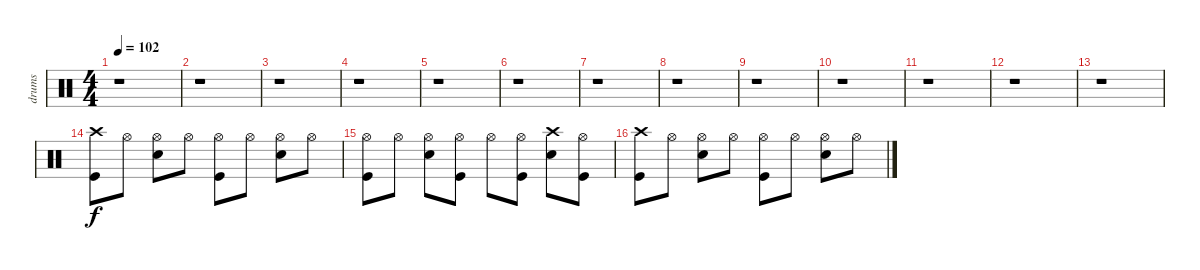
\track ("drums" "drums") {instrument percussion}
\staff {score}
\articulation defaults
\ts (4 4)
\tempo 102
\clef neutral
\ks c
r.1{dy f} |
r.1 |
r.1 |
r.1 |
r.1 |
r.1 |
r.1 |
r.1 |
r.1 |
r.1 |
r.1 |
r.1 |
r.1 |
("Crash high (hit)" "Kick (hit)").8 "Hi-Hat (open)".8 ("Hi-Hat (open)" "Snare (hit) 2").8 "Hi-Hat (open)".8 ("Hi-Hat (open)" "Kick (hit)").8 "Hi-Hat (open)".8 ("Hi-Hat (open)" "Snare (hit) 2").8 "Hi-Hat (open)".8 |
("Hi-Hat (open)" "Kick (hit)").8 "Hi-Hat (open)".8 ("Hi-Hat (open)" "Snare (hit) 2").8 ("Hi-Hat (open)" "Kick (hit)").8 "Hi-Hat (open)".8 ("Kick (hit)" "Hi-Hat (open)").8 ("Crash high (hit)" "Snare (hit) 2").8 ("Kick (hit)" "Hi-Hat (open)").8 |
("Crash high (hit)" "Kick (hit)").8 "Hi-Hat (open)".8 ("Hi-Hat (open)" "Snare (hit) 2").8 "Hi-Hat (open)".8 ("Hi-Hat (open)" "Kick (hit)").8 "Hi-Hat (open)".8 ("Hi-Hat (open)" "Snare (hit) 2").8 "Hi-Hat (open)".8
